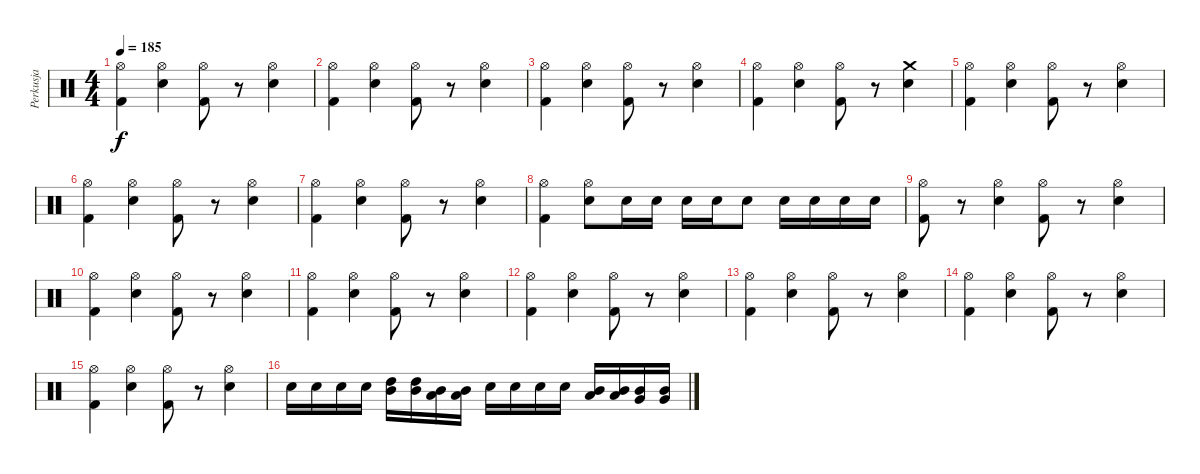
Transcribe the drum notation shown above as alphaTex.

\track ("Perkusja" "Perkusja") {instrument percussion}
\staff {score}
\articulation defaults
\ts (4 4)
\tempo 185
\clef neutral
\ks c
("Hi-Hat (open)" "Kick (hit) 2").4{dy f} ("Hi-Hat (open)" "Snare (hit) 2").4 ("Hi-Hat (open)" "Kick (hit) 2").8 r.8 ("Hi-Hat (open)" "Snare (hit) 2").4 |
("Hi-Hat (open)" "Kick (hit) 2").4 ("Hi-Hat (open)" "Snare (hit) 2").4 ("Hi-Hat (open)" "Kick (hit) 2").8 r.8 ("Hi-Hat (open)" "Snare (hit) 2").4 |
("Hi-Hat (open)" "Kick (hit) 2").4 ("Hi-Hat (open)" "Snare (hit) 2").4 ("Hi-Hat (open)" "Kick (hit) 2").8 r.8 ("Hi-Hat (open)" "Snare (hit) 2").4 |
("Hi-Hat (open)" "Kick (hit) 2").4 ("Hi-Hat (open)" "Snare (hit) 2").4 ("Hi-Hat (open)" "Kick (hit) 2").8 r.8 ("Crash medium (hit)" "Snare (hit) 2").4 |
("Hi-Hat (open)" "Kick (hit) 2").4 ("Hi-Hat (open)" "Snare (hit) 2").4 ("Hi-Hat (open)" "Kick (hit) 2").8 r.8 ("Hi-Hat (open)" "Snare (hit) 2").4 |
("Hi-Hat (open)" "Kick (hit) 2").4 ("Hi-Hat (open)" "Snare (hit) 2").4 ("Hi-Hat (open)" "Kick (hit) 2").8 r.8 ("Hi-Hat (open)" "Snare (hit) 2").4 |
("Hi-Hat (open)" "Kick (hit) 2").4 ("Hi-Hat (open)" "Snare (hit) 2").4 ("Hi-Hat (open)" "Kick (hit) 2").8 r.8 ("Hi-Hat (open)" "Snare (hit) 2").4 |
("Hi-Hat (open)" "Kick (hit) 2").4 ("Hi-Hat (open)" "Snare (hit) 2").8 "Snare (hit) 2".16 "Snare (hit) 2".16 "Snare (hit) 2".16 "Snare (hit) 2".16 "Snare (hit) 2".8 "Snare (hit) 2".16 "Snare (hit) 2".16 "Snare (hit) 2".16 "Snare (hit) 2".16 |
("Hi-Hat (open)" "Kick (hit) 2").8 r.8 ("Hi-Hat (open)" "Snare (hit) 2").4 ("Hi-Hat (open)" "Kick (hit) 2").8 r.8 ("Hi-Hat (open)" "Snare (hit) 2").4 |
("Hi-Hat (open)" "Kick (hit) 2").4 ("Hi-Hat (open)" "Snare (hit) 2").4 ("Hi-Hat (open)" "Kick (hit) 2").8 r.8 ("Hi-Hat (open)" "Snare (hit) 2").4 |
("Hi-Hat (open)" "Kick (hit) 2").4 ("Hi-Hat (open)" "Snare (hit) 2").4 ("Hi-Hat (open)" "Kick (hit) 2").8 r.8 ("Hi-Hat (open)" "Snare (hit) 2").4 |
("Hi-Hat (open)" "Kick (hit) 2").4 ("Hi-Hat (open)" "Snare (hit) 2").4 ("Hi-Hat (open)" "Kick (hit) 2").8 r.8 ("Hi-Hat (open)" "Snare (hit) 2").4 |
("Hi-Hat (open)" "Kick (hit) 2").4 ("Hi-Hat (open)" "Snare (hit) 2").4 ("Hi-Hat (open)" "Kick (hit) 2").8 r.8 ("Hi-Hat (open)" "Snare (hit) 2").4 |
("Hi-Hat (open)" "Kick (hit) 2").4 ("Hi-Hat (open)" "Snare (hit) 2").4 ("Hi-Hat (open)" "Kick (hit) 2").8 r.8 ("Hi-Hat (open)" "Snare (hit) 2").4 |
("Hi-Hat (open)" "Kick (hit) 2").4 ("Hi-Hat (open)" "Snare (hit) 2").4 ("Hi-Hat (open)" "Kick (hit) 2").8 r.8 ("Hi-Hat (open)" "Snare (hit) 2").4 |
"Snare (hit) 2".16 "Snare (hit) 2".16 "Snare (hit) 2".16 "Snare (hit) 2".16 ("Mid Tom (hit)" "High Tom (hit)").16 ("Mid Tom (hit)" "High Tom (hit)").16 ("Mid Tom (hit)" "Low Tom (hit)").16 ("Mid Tom (hit)" "Low Tom (hit)").16 "Snare (hit) 2".16 "Snare (hit) 2".16 "Snare (hit) 2".16 "Snare (hit) 2".16 ("Mid Tom (hit)" "Low Tom (hit)").16 ("Mid Tom (hit)" "Low Tom (hit)").16 ("Mid Tom (hit)" "Very Low Tom (hit)").16 ("Mid Tom (hit)" "Very Low Tom (hit)").16
